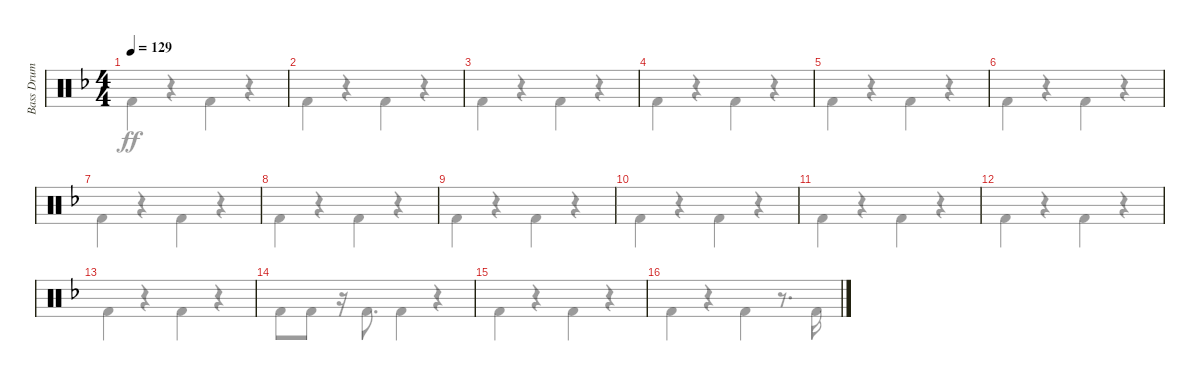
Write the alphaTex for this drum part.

\track ("Bass Drum" "Bass Drum") {instrument percussion}
\staff {score}
\articulation defaults
\voice
\ts (4 4)
\tempo 129
\clef neutral
\ks dminor
|
|
|
|
|
|
|
|
|
|
|
|
|
|
|
\voice
\clef neutral
\ks dminor "Kick (hit) 2".4{dy ff}
r.4 "Kick (hit) 2".4 r.4 |
"Kick (hit) 2".4 r.4 "Kick (hit) 2".4 r.4 |
"Kick (hit) 2".4 r.4 "Kick (hit) 2".4 r.4 |
"Kick (hit) 2".4 r.4 "Kick (hit) 2".4 r.4 |
"Kick (hit) 2".4 r.4 "Kick (hit) 2".4 r.4 |
"Kick (hit) 2".4 r.4 "Kick (hit) 2".4 r.4 |
"Kick (hit) 2".4 r.4 "Kick (hit) 2".4 r.4 |
"Kick (hit) 2".4 r.4 "Kick (hit) 2".4 r.4 |
"Kick (hit) 2".4 r.4 "Kick (hit) 2".4 r.4 |
"Kick (hit) 2".4 r.4 "Kick (hit) 2".4 r.4 |
"Kick (hit) 2".4 r.4 "Kick (hit) 2".4 r.4 |
"Kick (hit) 2".4 r.4 "Kick (hit) 2".4 r.4 |
"Kick (hit) 2".4 r.4 "Kick (hit) 2".4 r.4 |
"Kick (hit) 2".8 "Kick (hit) 2".8 r.16 "Kick (hit) 2".8{d} "Kick (hit) 2".4 r.4 |
"Kick (hit) 2".4 r.4 "Kick (hit) 2".4 r.4 |
"Kick (hit) 2".4 r.4 "Kick (hit) 2".4 r.8{d} "Kick (hit) 2".16
